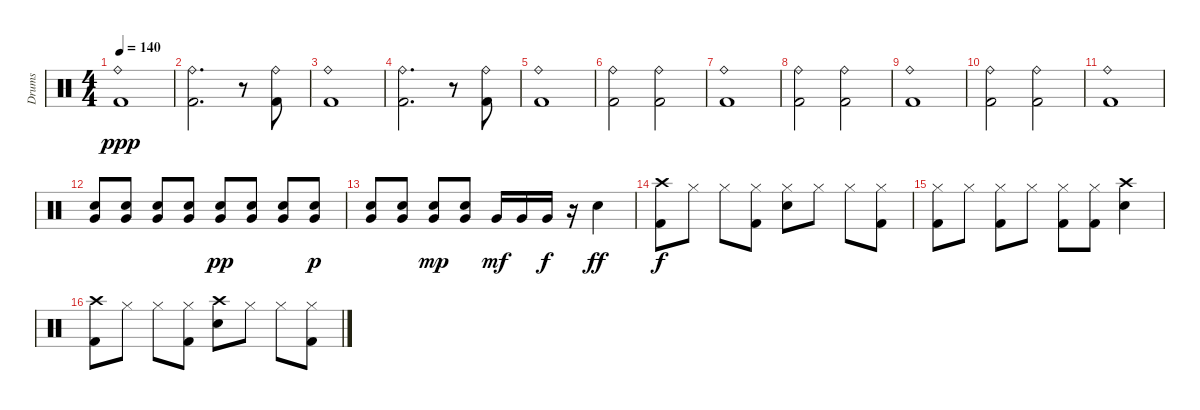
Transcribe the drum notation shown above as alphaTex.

\track ("Drums" "Drums") {instrument percussion}
\staff {score}
\articulation defaults
\ts (4 4)
\tempo 140
\clef neutral
\ks c
("Ride (bell)" "Kick (hit) 2").1{dy ppp} |
("Ride (bell)" "Kick (hit) 2").2{d} r.8 ("Ride (bell)" "Kick (hit) 2").8 |
("Ride (bell)" "Kick (hit) 2").1 |
("Ride (bell)" "Kick (hit) 2").2{d} r.8 ("Ride (bell)" "Kick (hit) 2").8 |
("Ride (bell)" "Kick (hit) 2").1 |
("Ride (bell)" "Kick (hit) 2").2 ("Ride (bell)" "Kick (hit) 2").2 |
("Ride (bell)" "Kick (hit) 2").1 |
("Ride (bell)" "Kick (hit) 2").2 ("Ride (bell)" "Kick (hit) 2").2 |
("Ride (bell)" "Kick (hit) 2").1 |
("Ride (bell)" "Kick (hit) 2").2 ("Ride (bell)" "Kick (hit) 2").2 |
("Ride (bell)" "Kick (hit) 2").1 |
("Very Low Tom (hit)" "Snare (hit) 2").8 ("Very Low Tom (hit)" "Snare (hit) 2").8 ("Very Low Tom (hit)" "Snare (hit) 2").8 ("Very Low Tom (hit)" "Snare (hit) 2").8 ("Very Low Tom (hit)" "Snare (hit) 2").8{dy pp} ("Very Low Tom (hit)" "Snare (hit) 2").8 ("Very Low Tom (hit)" "Snare (hit) 2").8 ("Very Low Tom (hit)" "Snare (hit) 2").8{dy p} |
("Very Low Tom (hit)" "Snare (hit) 2").8 ("Very Low Tom (hit)" "Snare (hit) 2").8 ("Very Low Tom (hit)" "Snare (hit) 2").8{dy mp} ("Very Low Tom (hit)" "Snare (hit) 2").8 "Very Low Tom (hit)".16{dy mf} "Very Low Tom (hit)".16 "Very Low Tom (hit)".16{dy f} r.16 "Snare (hit) 2".4{dy ff} |
("Crash high (hit)" "Kick (hit) 2").8{dy f} "Hi-Hat (closed)".8 "Hi-Hat (closed)".8 ("Hi-Hat (closed)" "Kick (hit) 2").8 ("Hi-Hat (closed)" "Snare (hit) 2").8 "Hi-Hat (closed)".8 "Hi-Hat (closed)".8 ("Hi-Hat (closed)" "Kick (hit) 2").8 |
("Hi-Hat (closed)" "Kick (hit) 2").8 "Hi-Hat (closed)".8 ("Hi-Hat (closed)" "Kick (hit) 2").8 "Hi-Hat (closed)".8 ("Hi-Hat (closed)" "Kick (hit) 2").8 ("Hi-Hat (closed)" "Kick (hit) 2").8 ("Crash high (hit)" "Snare (hit) 2").4 |
("Crash high (hit)" "Kick (hit) 2").8 "Hi-Hat (closed)".8 "Hi-Hat (closed)".8 ("Hi-Hat (closed)" "Kick (hit) 2").8 ("Crash high (hit)" "Snare (hit) 2").8 "Hi-Hat (closed)".8 "Hi-Hat (closed)".8 ("Hi-Hat (closed)" "Kick (hit) 2").8
